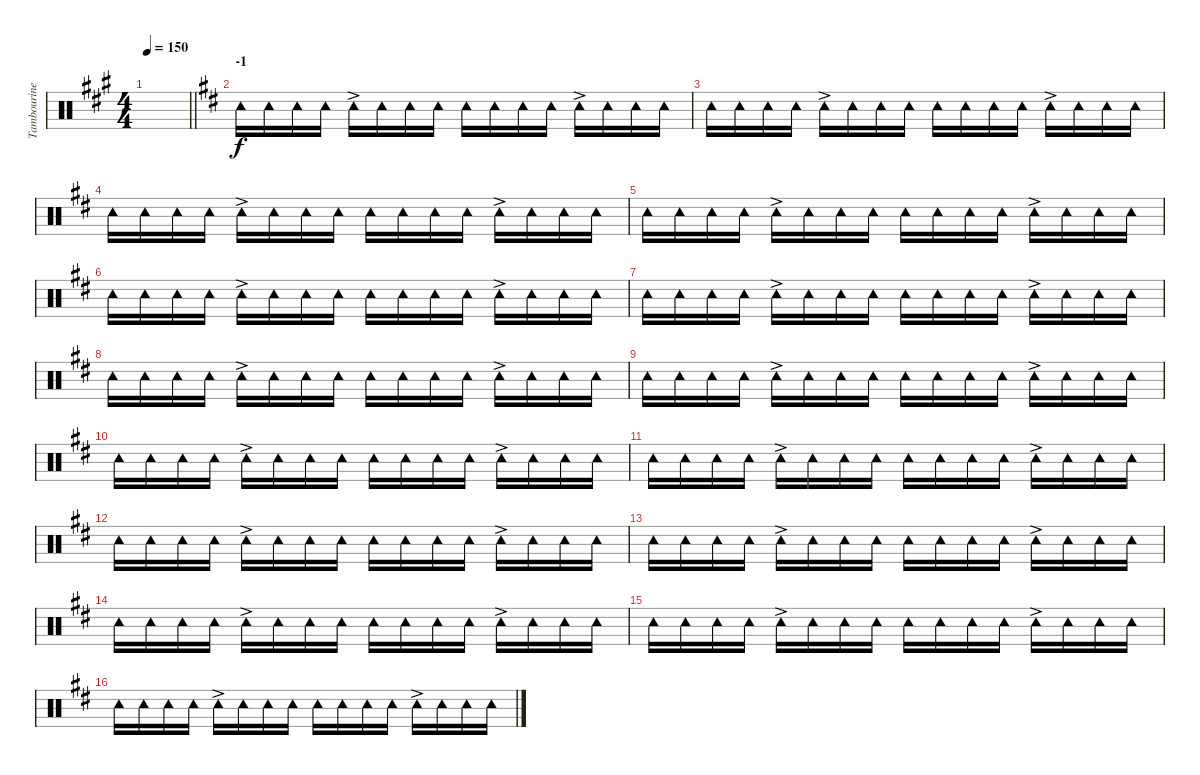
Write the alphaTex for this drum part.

\track ("Tambourine" "Tambourine") {instrument percussion}
\staff {score}
\articulation defaults
\ts (4 4)
\tempo 150
\clef neutral
\barLineRight lightlight
\ks a
|
\section ("" "-1")
\ks d "Tambourine (hit)".16 "Tambourine (hit)".16 "Tambourine (hit)".16 "Tambourine (hit)".16 "Tambourine (hit)"{ac}.16 "Tambourine (hit)".16 "Tambourine (hit)".16 "Tambourine (hit)".16 "Tambourine (hit)".16 "Tambourine (hit)".16 "Tambourine (hit)".16 "Tambourine (hit)".16 "Tambourine (hit)"{ac}.16 "Tambourine (hit)".16 "Tambourine (hit)".16 "Tambourine (hit)".16
|
"Tambourine (hit)".16 "Tambourine (hit)".16 "Tambourine (hit)".16 "Tambourine (hit)".16 "Tambourine (hit)"{ac}.16 "Tambourine (hit)".16 "Tambourine (hit)".16 "Tambourine (hit)".16 "Tambourine (hit)".16 "Tambourine (hit)".16 "Tambourine (hit)".16 "Tambourine (hit)".16 "Tambourine (hit)"{ac}.16 "Tambourine (hit)".16 "Tambourine (hit)".16 "Tambourine (hit)".16 |
"Tambourine (hit)".16 "Tambourine (hit)".16 "Tambourine (hit)".16 "Tambourine (hit)".16 "Tambourine (hit)"{ac}.16 "Tambourine (hit)".16 "Tambourine (hit)".16 "Tambourine (hit)".16 "Tambourine (hit)".16 "Tambourine (hit)".16 "Tambourine (hit)".16 "Tambourine (hit)".16 "Tambourine (hit)"{ac}.16 "Tambourine (hit)".16 "Tambourine (hit)".16 "Tambourine (hit)".16 |
"Tambourine (hit)".16 "Tambourine (hit)".16 "Tambourine (hit)".16 "Tambourine (hit)".16 "Tambourine (hit)"{ac}.16 "Tambourine (hit)".16 "Tambourine (hit)".16 "Tambourine (hit)".16 "Tambourine (hit)".16 "Tambourine (hit)".16 "Tambourine (hit)".16 "Tambourine (hit)".16 "Tambourine (hit)"{ac}.16 "Tambourine (hit)".16 "Tambourine (hit)".16 "Tambourine (hit)".16 |
"Tambourine (hit)".16 "Tambourine (hit)".16 "Tambourine (hit)".16 "Tambourine (hit)".16 "Tambourine (hit)"{ac}.16 "Tambourine (hit)".16 "Tambourine (hit)".16 "Tambourine (hit)".16 "Tambourine (hit)".16 "Tambourine (hit)".16 "Tambourine (hit)".16 "Tambourine (hit)".16 "Tambourine (hit)"{ac}.16 "Tambourine (hit)".16 "Tambourine (hit)".16 "Tambourine (hit)".16 |
"Tambourine (hit)".16 "Tambourine (hit)".16 "Tambourine (hit)".16 "Tambourine (hit)".16 "Tambourine (hit)"{ac}.16 "Tambourine (hit)".16 "Tambourine (hit)".16 "Tambourine (hit)".16 "Tambourine (hit)".16 "Tambourine (hit)".16 "Tambourine (hit)".16 "Tambourine (hit)".16 "Tambourine (hit)"{ac}.16 "Tambourine (hit)".16 "Tambourine (hit)".16 "Tambourine (hit)".16 |
"Tambourine (hit)".16 "Tambourine (hit)".16 "Tambourine (hit)".16 "Tambourine (hit)".16 "Tambourine (hit)"{ac}.16 "Tambourine (hit)".16 "Tambourine (hit)".16 "Tambourine (hit)".16 "Tambourine (hit)".16 "Tambourine (hit)".16 "Tambourine (hit)".16 "Tambourine (hit)".16 "Tambourine (hit)"{ac}.16 "Tambourine (hit)".16 "Tambourine (hit)".16 "Tambourine (hit)".16 |
"Tambourine (hit)".16 "Tambourine (hit)".16 "Tambourine (hit)".16 "Tambourine (hit)".16 "Tambourine (hit)"{ac}.16 "Tambourine (hit)".16 "Tambourine (hit)".16 "Tambourine (hit)".16 "Tambourine (hit)".16 "Tambourine (hit)".16 "Tambourine (hit)".16 "Tambourine (hit)".16 "Tambourine (hit)"{ac}.16 "Tambourine (hit)".16 "Tambourine (hit)".16 "Tambourine (hit)".16 |
"Tambourine (hit)".16 "Tambourine (hit)".16 "Tambourine (hit)".16 "Tambourine (hit)".16 "Tambourine (hit)"{ac}.16 "Tambourine (hit)".16 "Tambourine (hit)".16 "Tambourine (hit)".16 "Tambourine (hit)".16 "Tambourine (hit)".16 "Tambourine (hit)".16 "Tambourine (hit)".16 "Tambourine (hit)"{ac}.16 "Tambourine (hit)".16 "Tambourine (hit)".16 "Tambourine (hit)".16 |
"Tambourine (hit)".16 "Tambourine (hit)".16 "Tambourine (hit)".16 "Tambourine (hit)".16 "Tambourine (hit)"{ac}.16 "Tambourine (hit)".16 "Tambourine (hit)".16 "Tambourine (hit)".16 "Tambourine (hit)".16 "Tambourine (hit)".16 "Tambourine (hit)".16 "Tambourine (hit)".16 "Tambourine (hit)"{ac}.16 "Tambourine (hit)".16 "Tambourine (hit)".16 "Tambourine (hit)".16 |
"Tambourine (hit)".16 "Tambourine (hit)".16 "Tambourine (hit)".16 "Tambourine (hit)".16 "Tambourine (hit)"{ac}.16 "Tambourine (hit)".16 "Tambourine (hit)".16 "Tambourine (hit)".16 "Tambourine (hit)".16 "Tambourine (hit)".16 "Tambourine (hit)".16 "Tambourine (hit)".16 "Tambourine (hit)"{ac}.16 "Tambourine (hit)".16 "Tambourine (hit)".16 "Tambourine (hit)".16 |
"Tambourine (hit)".16 "Tambourine (hit)".16 "Tambourine (hit)".16 "Tambourine (hit)".16 "Tambourine (hit)"{ac}.16 "Tambourine (hit)".16 "Tambourine (hit)".16 "Tambourine (hit)".16 "Tambourine (hit)".16 "Tambourine (hit)".16 "Tambourine (hit)".16 "Tambourine (hit)".16 "Tambourine (hit)"{ac}.16 "Tambourine (hit)".16 "Tambourine (hit)".16 "Tambourine (hit)".16 |
"Tambourine (hit)".16 "Tambourine (hit)".16 "Tambourine (hit)".16 "Tambourine (hit)".16 "Tambourine (hit)"{ac}.16 "Tambourine (hit)".16 "Tambourine (hit)".16 "Tambourine (hit)".16 "Tambourine (hit)".16 "Tambourine (hit)".16 "Tambourine (hit)".16 "Tambourine (hit)".16 "Tambourine (hit)"{ac}.16 "Tambourine (hit)".16 "Tambourine (hit)".16 "Tambourine (hit)".16 |
"Tambourine (hit)".16 "Tambourine (hit)".16 "Tambourine (hit)".16 "Tambourine (hit)".16 "Tambourine (hit)"{ac}.16 "Tambourine (hit)".16 "Tambourine (hit)".16 "Tambourine (hit)".16 "Tambourine (hit)".16 "Tambourine (hit)".16 "Tambourine (hit)".16 "Tambourine (hit)".16 "Tambourine (hit)"{ac}.16 "Tambourine (hit)".16 "Tambourine (hit)".16 "Tambourine (hit)".16 |
"Tambourine (hit)".16 "Tambourine (hit)".16 "Tambourine (hit)".16 "Tambourine (hit)".16 "Tambourine (hit)"{ac}.16 "Tambourine (hit)".16 "Tambourine (hit)".16 "Tambourine (hit)".16 "Tambourine (hit)".16 "Tambourine (hit)".16 "Tambourine (hit)".16 "Tambourine (hit)".16 "Tambourine (hit)"{ac}.16 "Tambourine (hit)".16 "Tambourine (hit)".16 "Tambourine (hit)".16
